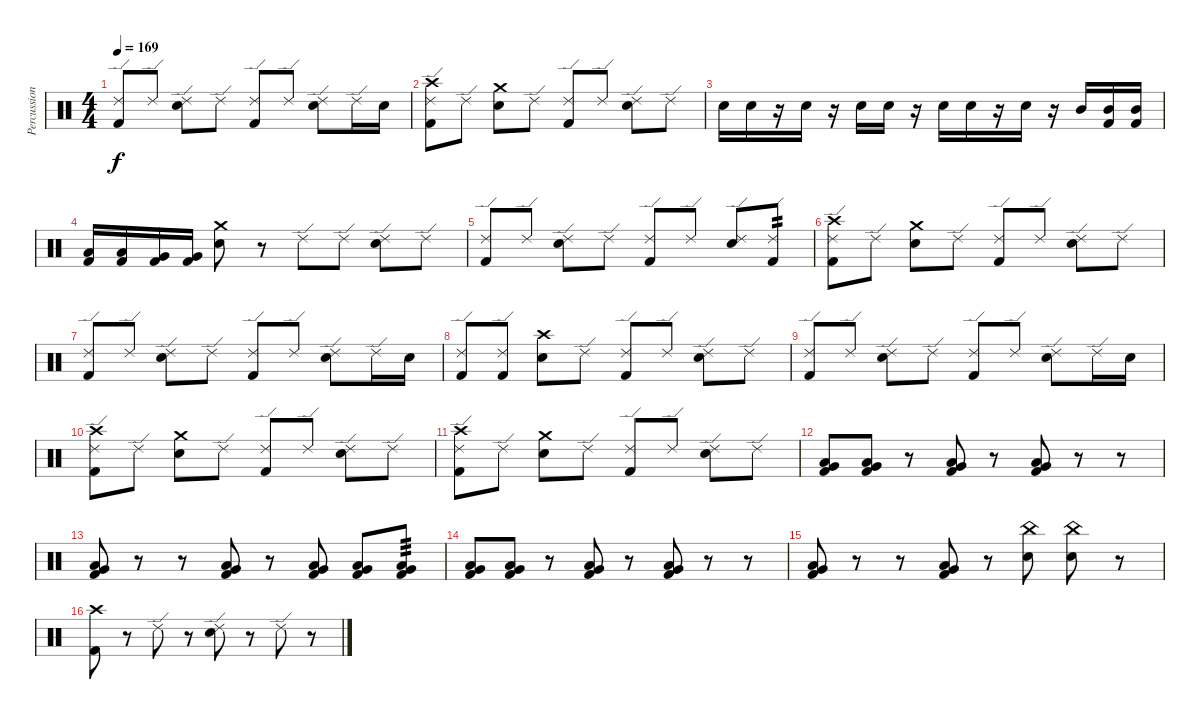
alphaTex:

\track ("Percussion" "Percussion") {instrument percussion}
\staff {score}
\articulation defaults
\ts (4 4)
\tempo 169
\clef neutral
\ks c
("Ride (edge) 2" "Kick (hit) 2").8{dy f} "Ride (edge) 2".8 ("Ride (edge) 2" "Electric Snare (hit)").8 "Ride (edge) 2".8 ("Ride (edge) 2" "Kick (hit) 2").8 "Ride (edge) 2".8 ("Ride (edge) 2" "Electric Snare (hit)").8 "Ride (edge) 2".16 "Electric Snare (hit)".16 |
("Ride (edge) 2" "Crash high (hit)" "Kick (hit) 2").8 "Ride (edge) 2".8 ("Crash medium (hit)" "Electric Snare (hit)").8 "Ride (edge) 2".8 ("Ride (edge) 2" "Kick (hit) 2").8 "Ride (edge) 2".8 ("Ride (edge) 2" "Electric Snare (hit)").8 "Ride (edge) 2".8 |
"Electric Snare (hit)".16 "Electric Snare (hit)".16 r.16 "Electric Snare (hit)".16 r.16 "Electric Snare (hit)".16 "Electric Snare (hit)".16 r.16 "Electric Snare (hit)".16 "Electric Snare (hit)".16 r.16 "Electric Snare (hit)".16 r.16 "Mid Tom (hit)".16 ("Mid Tom (hit)" "Kick (hit) 2").16 ("Mid Tom (hit)" "Kick (hit) 2").16 |
("Low Tom (hit)" "Kick (hit) 2").16 ("Low Tom (hit)" "Kick (hit) 2").16 ("Very Low Tom (hit)" "Kick (hit) 2").16 ("Very Low Tom (hit)" "Kick (hit) 2").16 ("Crash medium (hit)" "Electric Snare (hit)").8 r.8 "Ride (edge) 2".8 "Ride (edge) 2".8 ("Ride (edge) 2" "Electric Snare (hit)").8 "Ride (edge) 2".8 |
("Ride (edge) 2" "Kick (hit) 2").8 "Ride (edge) 2".8 ("Ride (edge) 2" "Electric Snare (hit)").8 "Ride (edge) 2".8 ("Ride (edge) 2" "Kick (hit) 2").8 "Ride (edge) 2".8 ("Ride (edge) 2" "Electric Snare (hit)").8 ("Ride (edge) 2" "Kick (hit) 2").8{tp 2} |
("Ride (edge) 2" "Crash high (hit)" "Kick (hit) 2").8 "Ride (edge) 2".8 ("Crash medium (hit)" "Electric Snare (hit)").8 "Ride (edge) 2".8 ("Ride (edge) 2" "Kick (hit) 2").8 "Ride (edge) 2".8 ("Ride (edge) 2" "Electric Snare (hit)").8 "Ride (edge) 2".8 |
("Ride (edge) 2" "Kick (hit) 2").8 "Ride (edge) 2".8 ("Ride (edge) 2" "Electric Snare (hit)").8 "Ride (edge) 2".8 ("Ride (edge) 2" "Kick (hit) 2").8 "Ride (edge) 2".8 ("Ride (edge) 2" "Electric Snare (hit)").8 "Ride (edge) 2".16 "Electric Snare (hit)".16 |
("Ride (edge) 2" "Kick (hit) 2").8 ("Ride (edge) 2" "Kick (hit) 2").8 ("Crash high (hit)" "Electric Snare (hit)").8 "Ride (edge) 2".8 ("Ride (edge) 2" "Kick (hit) 2").8 "Ride (edge) 2".8 ("Ride (edge) 2" "Electric Snare (hit)").8 "Ride (edge) 2".8 |
("Ride (edge) 2" "Kick (hit) 2").8 "Ride (edge) 2".8 ("Ride (edge) 2" "Electric Snare (hit)").8 "Ride (edge) 2".8 ("Ride (edge) 2" "Kick (hit) 2").8 "Ride (edge) 2".8 ("Ride (edge) 2" "Electric Snare (hit)").8 "Ride (edge) 2".16 "Electric Snare (hit)".16 |
("Ride (edge) 2" "Crash high (hit)" "Kick (hit) 2").8 "Ride (edge) 2".8 ("Crash medium (hit)" "Electric Snare (hit)").8 "Ride (edge) 2".8 ("Ride (edge) 2" "Kick (hit) 2").8 "Ride (edge) 2".8 ("Ride (edge) 2" "Electric Snare (hit)").8 "Ride (edge) 2".8 |
("Ride (edge) 2" "Crash high (hit)" "Kick (hit) 2").8 "Ride (edge) 2".8 ("Crash medium (hit)" "Electric Snare (hit)").8 "Ride (edge) 2".8 ("Ride (edge) 2" "Kick (hit) 2").8 "Ride (edge) 2".8 ("Ride (edge) 2" "Electric Snare (hit)").8 "Ride (edge) 2".8 |
("Low Tom (hit)" "Very Low Tom (hit)" "Kick (hit) 2").8 ("Low Tom (hit)" "Very Low Tom (hit)" "Kick (hit) 2").8 r.8 ("Low Tom (hit)" "Very Low Tom (hit)" "Kick (hit) 2").8 r.8 ("Low Tom (hit)" "Very Low Tom (hit)" "Kick (hit) 2").8 r.8 r.8 |
("Low Tom (hit)" "Very Low Tom (hit)" "Kick (hit) 2").8 r.8 r.8 ("Low Tom (hit)" "Very Low Tom (hit)" "Kick (hit) 2").8 r.8 ("Low Tom (hit)" "Very Low Tom (hit)" "Kick (hit) 2").8 ("Low Tom (hit)" "Very Low Tom (hit)" "Kick (hit) 2").8 ("Low Tom (hit)" "Very Low Tom (hit)" "Kick (hit) 2").8{tp 3} |
("Low Tom (hit)" "Very Low Tom (hit)" "Kick (hit) 2").8 ("Low Tom (hit)" "Very Low Tom (hit)" "Kick (hit) 2").8 r.8 ("Low Tom (hit)" "Very Low Tom (hit)" "Kick (hit) 2").8 r.8 ("Low Tom (hit)" "Very Low Tom (hit)" "Kick (hit) 2").8 r.8 r.8 |
("Low Tom (hit)" "Very Low Tom (hit)" "Kick (hit) 2").8 r.8 r.8 ("Low Tom (hit)" "Very Low Tom (hit)" "Kick (hit) 2").8 r.8 ("China (hit)" "Electric Snare (hit)").8 ("China (hit)" "Electric Snare (hit)").8 r.8 |
("Crash high (hit)" "Kick (hit) 2").8 r.8 "Ride (edge) 2".8 r.8 ("Ride (edge) 2" "Electric Snare (hit)").8 r.8 "Ride (edge) 2".8 r.8
